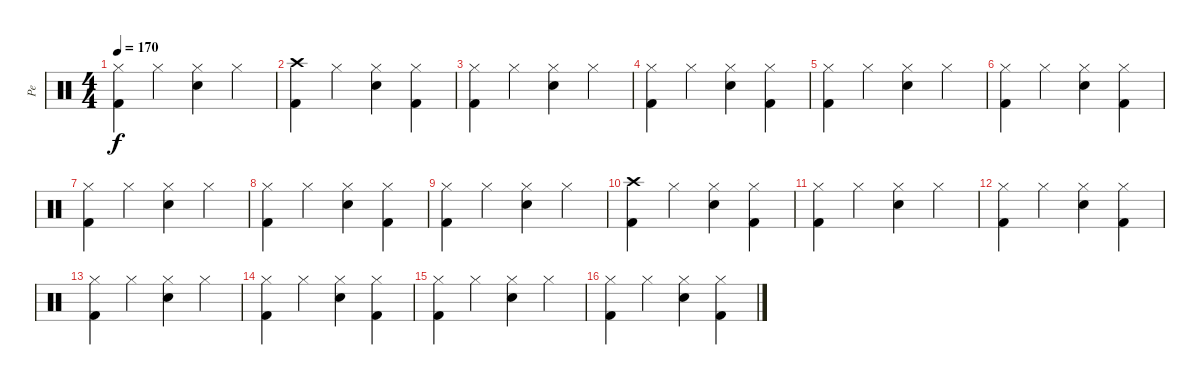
\track ("Pe" "Pe") {instrument percussion}
\staff {score}
\articulation defaults
\ts (4 4)
\tempo 170
\clef neutral
\ks c
("Kick (hit) 2" "Hi-Hat (closed)").4{dy f} "Hi-Hat (closed)".4 ("Snare (hit) 2" "Hi-Hat (closed)").4 "Hi-Hat (closed)".4 |
("Kick (hit) 2" "Crash high (hit)").4 "Hi-Hat (closed)".4 ("Snare (hit) 2" "Hi-Hat (closed)").4 ("Kick (hit) 2" "Hi-Hat (closed)").4 |
("Kick (hit) 2" "Hi-Hat (closed)").4 "Hi-Hat (closed)".4 ("Snare (hit) 2" "Hi-Hat (closed)").4 "Hi-Hat (closed)".4 |
("Kick (hit) 2" "Hi-Hat (closed)").4 "Hi-Hat (closed)".4 ("Snare (hit) 2" "Hi-Hat (closed)").4 ("Kick (hit) 2" "Hi-Hat (closed)").4 |
("Kick (hit) 2" "Hi-Hat (closed)").4 "Hi-Hat (closed)".4 ("Snare (hit) 2" "Hi-Hat (closed)").4 "Hi-Hat (closed)".4 |
("Kick (hit) 2" "Hi-Hat (closed)").4 "Hi-Hat (closed)".4 ("Snare (hit) 2" "Hi-Hat (closed)").4 ("Kick (hit) 2" "Hi-Hat (closed)").4 |
("Kick (hit) 2" "Hi-Hat (closed)").4 "Hi-Hat (closed)".4 ("Snare (hit) 2" "Hi-Hat (closed)").4 "Hi-Hat (closed)".4 |
("Kick (hit) 2" "Hi-Hat (closed)").4 "Hi-Hat (closed)".4 ("Snare (hit) 2" "Hi-Hat (closed)").4 ("Kick (hit) 2" "Hi-Hat (closed)").4 |
("Kick (hit) 2" "Hi-Hat (closed)").4 "Hi-Hat (closed)".4 ("Snare (hit) 2" "Hi-Hat (closed)").4 "Hi-Hat (closed)".4 |
("Kick (hit) 2" "Crash high (hit)").4 "Hi-Hat (closed)".4 ("Snare (hit) 2" "Hi-Hat (closed)").4 ("Kick (hit) 2" "Hi-Hat (closed)").4 |
("Kick (hit) 2" "Hi-Hat (closed)").4 "Hi-Hat (closed)".4 ("Snare (hit) 2" "Hi-Hat (closed)").4 "Hi-Hat (closed)".4 |
("Kick (hit) 2" "Hi-Hat (closed)").4 "Hi-Hat (closed)".4 ("Snare (hit) 2" "Hi-Hat (closed)").4 ("Kick (hit) 2" "Hi-Hat (closed)").4 |
("Kick (hit) 2" "Hi-Hat (closed)").4 "Hi-Hat (closed)".4 ("Snare (hit) 2" "Hi-Hat (closed)").4 "Hi-Hat (closed)".4 |
("Kick (hit) 2" "Hi-Hat (closed)").4 "Hi-Hat (closed)".4 ("Snare (hit) 2" "Hi-Hat (closed)").4 ("Kick (hit) 2" "Hi-Hat (closed)").4 |
("Kick (hit) 2" "Hi-Hat (closed)").4 "Hi-Hat (closed)".4 ("Snare (hit) 2" "Hi-Hat (closed)").4 "Hi-Hat (closed)".4 |
("Kick (hit) 2" "Hi-Hat (closed)").4 "Hi-Hat (closed)".4 ("Snare (hit) 2" "Hi-Hat (closed)").4 ("Kick (hit) 2" "Hi-Hat (closed)").4
